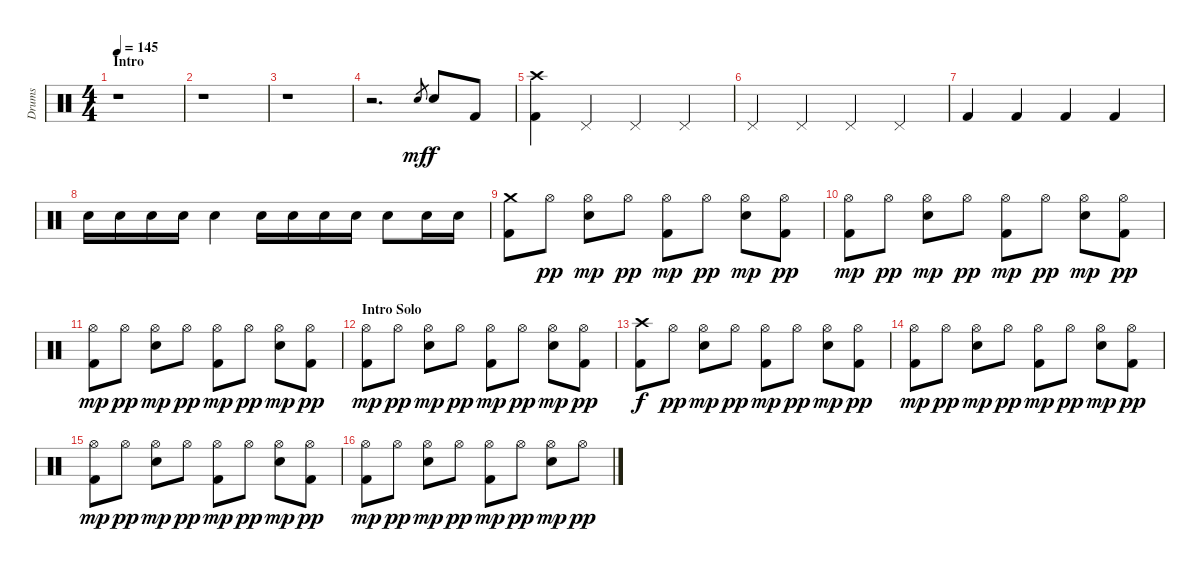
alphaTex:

\track ("Drums" "Drums") {instrument percussion}
\staff {score}
\articulation defaults
\ts (4 4)
\section ("" "Intro")
\tempo 145
\clef neutral
\ks c
r.1{dy mf} |
r.1 |
r.1 |
r.2{d} "Snare (hit) 2".8{gr} "Snare (hit) 2".8{dy f} "Kick (hit) 2".8 |
("Crash high (hit)" "Kick (hit) 2").4 "Pedal Hi-Hat (hit)".4 "Pedal Hi-Hat (hit)".4 "Pedal Hi-Hat (hit)".4 |
"Pedal Hi-Hat (hit)".4 "Pedal Hi-Hat (hit)".4 "Pedal Hi-Hat (hit)".4 "Pedal Hi-Hat (hit)".4 |
"Kick (hit) 2".4 "Kick (hit) 2".4 "Kick (hit) 2".4 "Kick (hit) 2".4 |
"Snare (hit) 2".16 "Snare (hit) 2".16 "Snare (hit) 2".16 "Snare (hit) 2".16 "Snare (hit) 2".4 "Snare (hit) 2".16 "Snare (hit) 2".16 "Snare (hit) 2".16 "Snare (hit) 2".16 "Snare (hit) 2".8 "Snare (hit) 2".16 "Snare (hit) 2".16 |
("Crash medium (hit)" "Kick (hit) 2").8 "Hi-Hat (open)".8{dy pp} ("Hi-Hat (open)" "Snare (hit) 2").8{dy mp} "Hi-Hat (open)".8{dy pp} ("Hi-Hat (open)" "Kick (hit) 2").8{dy mp} "Hi-Hat (open)".8{dy pp} ("Hi-Hat (open)" "Snare (hit) 2").8{dy mp} ("Hi-Hat (open)" "Kick (hit) 2").8{dy pp} |
("Hi-Hat (open)" "Kick (hit) 2").8{dy mp} "Hi-Hat (open)".8{dy pp} ("Hi-Hat (open)" "Snare (hit) 2").8{dy mp} "Hi-Hat (open)".8{dy pp} ("Hi-Hat (open)" "Kick (hit) 2").8{dy mp} "Hi-Hat (open)".8{dy pp} ("Hi-Hat (open)" "Snare (hit) 2").8{dy mp} ("Hi-Hat (open)" "Kick (hit) 2").8{dy pp} |
("Hi-Hat (open)" "Kick (hit) 2").8{dy mp} "Hi-Hat (open)".8{dy pp} ("Hi-Hat (open)" "Snare (hit) 2").8{dy mp} "Hi-Hat (open)".8{dy pp} ("Hi-Hat (open)" "Kick (hit) 2").8{dy mp} "Hi-Hat (open)".8{dy pp} ("Hi-Hat (open)" "Snare (hit) 2").8{dy mp} ("Hi-Hat (open)" "Kick (hit) 2").8{dy pp} |
\section ("" "Intro Solo")
("Hi-Hat (open)" "Kick (hit) 2").8{dy mp} "Hi-Hat (open)".8{dy pp} ("Hi-Hat (open)" "Snare (hit) 2").8{dy mp} "Hi-Hat (open)".8{dy pp} ("Hi-Hat (open)" "Kick (hit) 2").8{dy mp} "Hi-Hat (open)".8{dy pp} ("Hi-Hat (open)" "Snare (hit) 2").8{dy mp} ("Hi-Hat (open)" "Kick (hit) 2").8{dy pp} |
("Crash high (hit)" "Kick (hit) 2").8{dy f} "Hi-Hat (open)".8{dy pp} ("Hi-Hat (open)" "Snare (hit) 2").8{dy mp} "Hi-Hat (open)".8{dy pp} ("Hi-Hat (open)" "Kick (hit) 2").8{dy mp} "Hi-Hat (open)".8{dy pp} ("Hi-Hat (open)" "Snare (hit) 2").8{dy mp} ("Hi-Hat (open)" "Kick (hit) 2").8{dy pp} |
("Hi-Hat (open)" "Kick (hit) 2").8{dy mp} "Hi-Hat (open)".8{dy pp} ("Hi-Hat (open)" "Snare (hit) 2").8{dy mp} "Hi-Hat (open)".8{dy pp} ("Hi-Hat (open)" "Kick (hit) 2").8{dy mp} "Hi-Hat (open)".8{dy pp} ("Hi-Hat (open)" "Snare (hit) 2").8{dy mp} ("Hi-Hat (open)" "Kick (hit) 2").8{dy pp} |
("Hi-Hat (open)" "Kick (hit) 2").8{dy mp} "Hi-Hat (open)".8{dy pp} ("Hi-Hat (open)" "Snare (hit) 2").8{dy mp} "Hi-Hat (open)".8{dy pp} ("Hi-Hat (open)" "Kick (hit) 2").8{dy mp} "Hi-Hat (open)".8{dy pp} ("Hi-Hat (open)" "Snare (hit) 2").8{dy mp} ("Hi-Hat (open)" "Kick (hit) 2").8{dy pp} |
("Hi-Hat (open)" "Kick (hit) 2").8{dy mp} "Hi-Hat (open)".8{dy pp} ("Hi-Hat (open)" "Snare (hit) 2").8{dy mp} "Hi-Hat (open)".8{dy pp} ("Hi-Hat (open)" "Kick (hit) 2").8{dy mp} "Hi-Hat (open)".8{dy pp} ("Hi-Hat (open)" "Snare (hit) 2").8{dy mp} "Hi-Hat (open)".8{dy pp}
